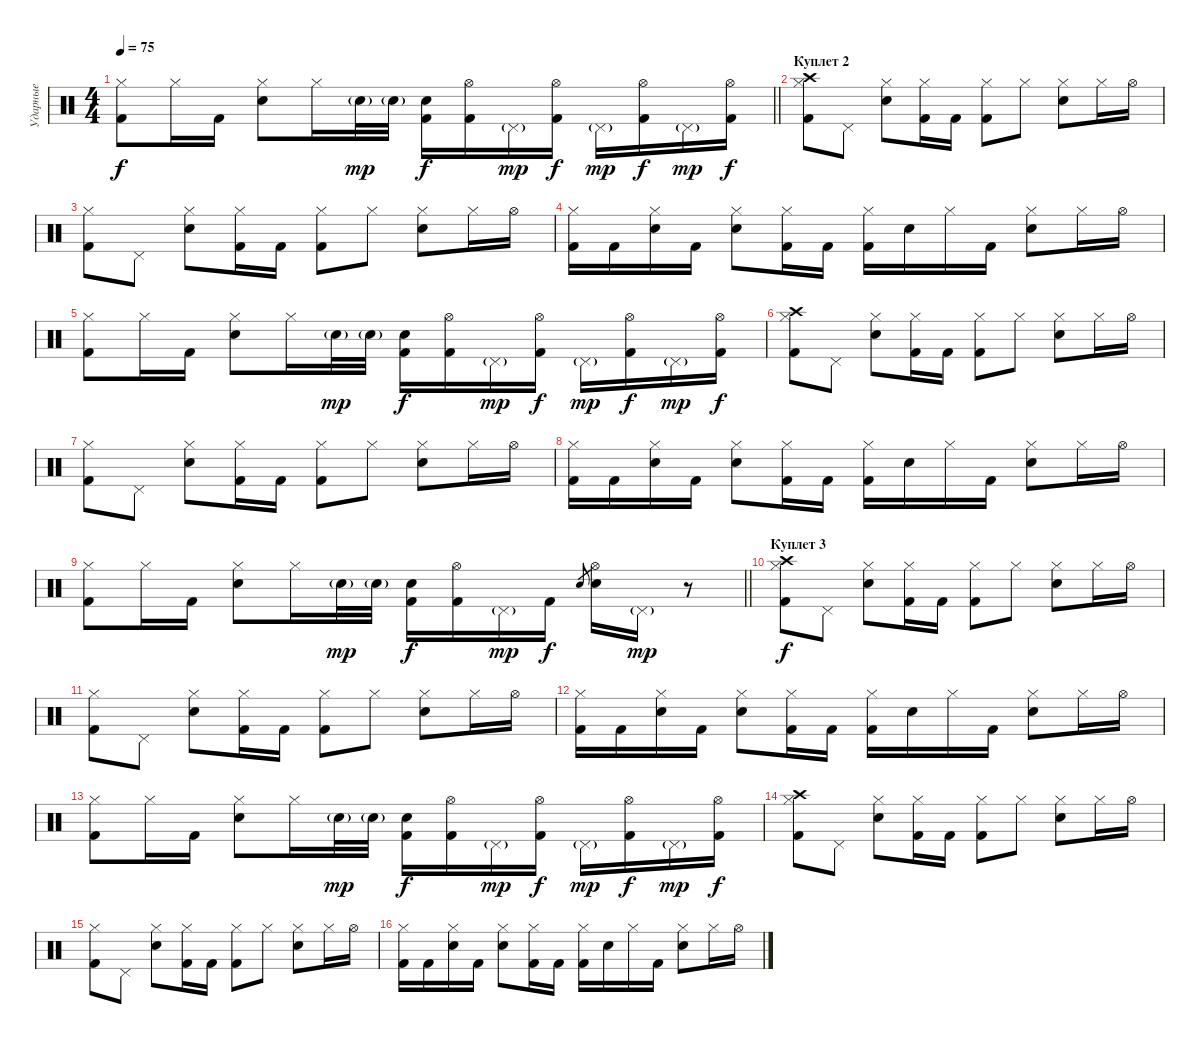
\track ("Ударные" "Ударные") {instrument percussion}
\staff {score}
\articulation defaults
\ts (4 4)
\tempo 75
\clef neutral
\barLineRight lightlight
\ks c
("Hi-Hat (closed)" "Kick (hit) 2").8{dy f} "Hi-Hat (closed)".16 "Kick (hit) 2".16 ("Hi-Hat (closed)" "Electric Snare (hit)").8 "Hi-Hat (closed)".16 "Electric Snare (hit)"{g}.32{dy mp} "Electric Snare (hit)"{g}.32 ("Electric Snare (hit)" "Kick (hit) 2").16{dy f} ("Hi-Hat (open)" "Kick (hit) 2").16 "Pedal Hi-Hat (hit)"{g}.16{dy mp} ("Hi-Hat (open)" "Kick (hit) 2").16{dy f} "Pedal Hi-Hat (hit)"{g}.16{dy mp} ("Hi-Hat (open)" "Kick (hit) 2").16{dy f} "Pedal Hi-Hat (hit)"{g}.16{dy mp} ("Hi-Hat (open)" "Kick (hit) 2").16{dy f} |
\section ("" "Куплет 2")
("Crash high (hit)" "Hi-Hat (closed)" "Kick (hit) 2").8 "Pedal Hi-Hat (hit)".8 ("Hi-Hat (closed)" "Electric Snare (hit)").8 ("Hi-Hat (closed)" "Kick (hit) 2").16 "Kick (hit) 2".16 ("Hi-Hat (closed)" "Kick (hit) 2").8 "Hi-Hat (closed)".8 ("Hi-Hat (closed)" "Electric Snare (hit)").8 "Hi-Hat (closed)".16 "Hi-Hat (open)".16 |
("Hi-Hat (closed)" "Kick (hit) 2").8 "Pedal Hi-Hat (hit)".8 ("Hi-Hat (closed)" "Electric Snare (hit)").8 ("Hi-Hat (closed)" "Kick (hit) 2").16 "Kick (hit) 2".16 ("Hi-Hat (closed)" "Kick (hit) 2").8 "Hi-Hat (closed)".8 ("Hi-Hat (closed)" "Electric Snare (hit)").8 "Hi-Hat (closed)".16 "Hi-Hat (open)".16 |
("Hi-Hat (closed)" "Kick (hit) 2").16 "Kick (hit) 2".16 ("Hi-Hat (closed)" "Electric Snare (hit)").16 "Kick (hit) 2".16 ("Hi-Hat (closed)" "Electric Snare (hit)").8 ("Hi-Hat (closed)" "Kick (hit) 2").16 "Kick (hit) 2".16 ("Hi-Hat (closed)" "Kick (hit) 2").16 "Electric Snare (hit)".16 "Hi-Hat (closed)".16 "Kick (hit) 2".16 ("Hi-Hat (closed)" "Electric Snare (hit)").8 "Hi-Hat (closed)".16 "Hi-Hat (open)".16 |
("Hi-Hat (closed)" "Kick (hit) 2").8 "Hi-Hat (closed)".16 "Kick (hit) 2".16 ("Hi-Hat (closed)" "Electric Snare (hit)").8 "Hi-Hat (closed)".16 "Electric Snare (hit)"{g}.32{dy mp} "Electric Snare (hit)"{g}.32 ("Electric Snare (hit)" "Kick (hit) 2").16{dy f} ("Hi-Hat (open)" "Kick (hit) 2").16 "Pedal Hi-Hat (hit)"{g}.16{dy mp} ("Hi-Hat (open)" "Kick (hit) 2").16{dy f} "Pedal Hi-Hat (hit)"{g}.16{dy mp} ("Hi-Hat (open)" "Kick (hit) 2").16{dy f} "Pedal Hi-Hat (hit)"{g}.16{dy mp} ("Hi-Hat (open)" "Kick (hit) 2").16{dy f} |
("Crash high (hit)" "Hi-Hat (closed)" "Kick (hit) 2").8 "Pedal Hi-Hat (hit)".8 ("Hi-Hat (closed)" "Electric Snare (hit)").8 ("Hi-Hat (closed)" "Kick (hit) 2").16 "Kick (hit) 2".16 ("Hi-Hat (closed)" "Kick (hit) 2").8 "Hi-Hat (closed)".8 ("Hi-Hat (closed)" "Electric Snare (hit)").8 "Hi-Hat (closed)".16 "Hi-Hat (open)".16 |
("Hi-Hat (closed)" "Kick (hit) 2").8 "Pedal Hi-Hat (hit)".8 ("Hi-Hat (closed)" "Electric Snare (hit)").8 ("Hi-Hat (closed)" "Kick (hit) 2").16 "Kick (hit) 2".16 ("Hi-Hat (closed)" "Kick (hit) 2").8 "Hi-Hat (closed)".8 ("Hi-Hat (closed)" "Electric Snare (hit)").8 "Hi-Hat (closed)".16 "Hi-Hat (open)".16 |
("Hi-Hat (closed)" "Kick (hit) 2").16 "Kick (hit) 2".16 ("Hi-Hat (closed)" "Electric Snare (hit)").16 "Kick (hit) 2".16 ("Hi-Hat (closed)" "Electric Snare (hit)").8 ("Hi-Hat (closed)" "Kick (hit) 2").16 "Kick (hit) 2".16 ("Hi-Hat (closed)" "Kick (hit) 2").16 "Electric Snare (hit)".16 "Hi-Hat (closed)".16 "Kick (hit) 2".16 ("Hi-Hat (closed)" "Electric Snare (hit)").8 "Hi-Hat (closed)".16 "Hi-Hat (open)".16 |
\barLineRight lightlight
("Hi-Hat (closed)" "Kick (hit) 2").8 "Hi-Hat (closed)".16 "Kick (hit) 2".16 ("Hi-Hat (closed)" "Electric Snare (hit)").8 "Hi-Hat (closed)".16 "Electric Snare (hit)"{g}.32{dy mp} "Electric Snare (hit)"{g}.32 ("Electric Snare (hit)" "Kick (hit) 2").16{dy f} ("Hi-Hat (open)" "Kick (hit) 2").16 "Pedal Hi-Hat (hit)"{g}.16{dy mp} "Kick (hit) 2".16{dy f} "Electric Snare (hit)".8{gr} ("Hi-Hat (open)" "Electric Snare (hit)").16 "Pedal Hi-Hat (hit)"{g}.16{dy mp} r.8 |
\section ("" "Куплет 3")
("Crash high (hit)" "Hi-Hat (closed)" "Kick (hit) 2").8{dy f} "Pedal Hi-Hat (hit)".8 ("Hi-Hat (closed)" "Electric Snare (hit)").8 ("Hi-Hat (closed)" "Kick (hit) 2").16 "Kick (hit) 2".16 ("Hi-Hat (closed)" "Kick (hit) 2").8 "Hi-Hat (closed)".8 ("Hi-Hat (closed)" "Electric Snare (hit)").8 "Hi-Hat (closed)".16 "Hi-Hat (open)".16 |
("Hi-Hat (closed)" "Kick (hit) 2").8 "Pedal Hi-Hat (hit)".8 ("Hi-Hat (closed)" "Electric Snare (hit)").8 ("Hi-Hat (closed)" "Kick (hit) 2").16 "Kick (hit) 2".16 ("Hi-Hat (closed)" "Kick (hit) 2").8 "Hi-Hat (closed)".8 ("Hi-Hat (closed)" "Electric Snare (hit)").8 "Hi-Hat (closed)".16 "Hi-Hat (open)".16 |
("Hi-Hat (closed)" "Kick (hit) 2").16 "Kick (hit) 2".16 ("Hi-Hat (closed)" "Electric Snare (hit)").16 "Kick (hit) 2".16 ("Hi-Hat (closed)" "Electric Snare (hit)").8 ("Hi-Hat (closed)" "Kick (hit) 2").16 "Kick (hit) 2".16 ("Hi-Hat (closed)" "Kick (hit) 2").16 "Electric Snare (hit)".16 "Hi-Hat (closed)".16 "Kick (hit) 2".16 ("Hi-Hat (closed)" "Electric Snare (hit)").8 "Hi-Hat (closed)".16 "Hi-Hat (open)".16 |
("Hi-Hat (closed)" "Kick (hit) 2").8 "Hi-Hat (closed)".16 "Kick (hit) 2".16 ("Hi-Hat (closed)" "Electric Snare (hit)").8 "Hi-Hat (closed)".16 "Electric Snare (hit)"{g}.32{dy mp} "Electric Snare (hit)"{g}.32 ("Electric Snare (hit)" "Kick (hit) 2").16{dy f} ("Hi-Hat (open)" "Kick (hit) 2").16 "Pedal Hi-Hat (hit)"{g}.16{dy mp} ("Hi-Hat (open)" "Kick (hit) 2").16{dy f} "Pedal Hi-Hat (hit)"{g}.16{dy mp} ("Hi-Hat (open)" "Kick (hit) 2").16{dy f} "Pedal Hi-Hat (hit)"{g}.16{dy mp} ("Hi-Hat (open)" "Kick (hit) 2").16{dy f} |
("Crash high (hit)" "Hi-Hat (closed)" "Kick (hit) 2").8 "Pedal Hi-Hat (hit)".8 ("Hi-Hat (closed)" "Electric Snare (hit)").8 ("Hi-Hat (closed)" "Kick (hit) 2").16 "Kick (hit) 2".16 ("Hi-Hat (closed)" "Kick (hit) 2").8 "Hi-Hat (closed)".8 ("Hi-Hat (closed)" "Electric Snare (hit)").8 "Hi-Hat (closed)".16 "Hi-Hat (open)".16 |
("Hi-Hat (closed)" "Kick (hit) 2").8 "Pedal Hi-Hat (hit)".8 ("Hi-Hat (closed)" "Electric Snare (hit)").8 ("Hi-Hat (closed)" "Kick (hit) 2").16 "Kick (hit) 2".16 ("Hi-Hat (closed)" "Kick (hit) 2").8 "Hi-Hat (closed)".8 ("Hi-Hat (closed)" "Electric Snare (hit)").8 "Hi-Hat (closed)".16 "Hi-Hat (open)".16 |
("Hi-Hat (closed)" "Kick (hit) 2").16 "Kick (hit) 2".16 ("Hi-Hat (closed)" "Electric Snare (hit)").16 "Kick (hit) 2".16 ("Hi-Hat (closed)" "Electric Snare (hit)").8 ("Hi-Hat (closed)" "Kick (hit) 2").16 "Kick (hit) 2".16 ("Hi-Hat (closed)" "Kick (hit) 2").16 "Electric Snare (hit)".16 "Hi-Hat (closed)".16 "Kick (hit) 2".16 ("Hi-Hat (closed)" "Electric Snare (hit)").8 "Hi-Hat (closed)".16 "Hi-Hat (open)".16
